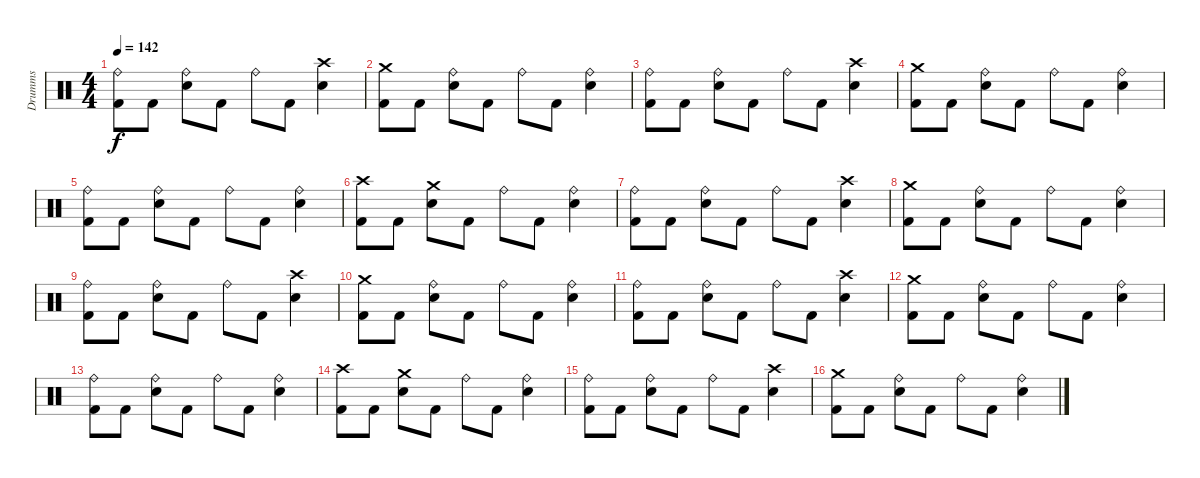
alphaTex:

\track ("Drumms" "Drumms") {instrument percussion}
\staff {score}
\articulation defaults
\ts (4 4)
\tempo 142
\clef neutral
\ks c
("Kick (hit) 2" "Ride (bell)").8{dy f} "Kick (hit) 2".8 ("Electric Snare (hit)" "Ride (bell)").8 "Kick (hit) 2".8 "Ride (bell)".8 "Kick (hit) 2".8 ("Electric Snare (hit)" "Crash high (hit)").4 |
("Kick (hit) 2" "Crash medium (hit)").8 "Kick (hit) 2".8 ("Electric Snare (hit)" "Ride (bell)").8 "Kick (hit) 2".8 "Ride (bell)".8 "Kick (hit) 2".8 ("Electric Snare (hit)" "Ride (bell)").4 |
("Kick (hit) 2" "Ride (bell)").8 "Kick (hit) 2".8 ("Electric Snare (hit)" "Ride (bell)").8 "Kick (hit) 2".8 "Ride (bell)".8 "Kick (hit) 2".8 ("Electric Snare (hit)" "Crash high (hit)").4 |
("Kick (hit) 2" "Crash medium (hit)").8 "Kick (hit) 2".8 ("Electric Snare (hit)" "Ride (bell)").8 "Kick (hit) 2".8 "Ride (bell)".8 "Kick (hit) 2".8 ("Electric Snare (hit)" "Ride (bell)").4 |
("Kick (hit) 2" "Ride (bell)").8 "Kick (hit) 2".8 ("Electric Snare (hit)" "Ride (bell)").8 "Kick (hit) 2".8 "Ride (bell)".8 "Kick (hit) 2".8 ("Electric Snare (hit)" "Ride (bell)").4 |
("Kick (hit) 2" "Crash high (hit)").8 "Kick (hit) 2".8 ("Electric Snare (hit)" "Crash medium (hit)").8 "Kick (hit) 2".8 "Ride (bell)".8 "Kick (hit) 2".8 ("Electric Snare (hit)" "Ride (bell)").4 |
("Ride (bell)" "Kick (hit) 2").8 "Kick (hit) 2".8 ("Ride (bell)" "Electric Snare (hit)").8 "Kick (hit) 2".8 "Ride (bell)".8 "Kick (hit) 2".8 ("Crash high (hit)" "Electric Snare (hit)").4 |
("Kick (hit) 2" "Crash medium (hit)").8 "Kick (hit) 2".8 ("Electric Snare (hit)" "Ride (bell)").8 "Kick (hit) 2".8 "Ride (bell)".8 "Kick (hit) 2".8 ("Electric Snare (hit)" "Ride (bell)").4 |
("Kick (hit) 2" "Ride (bell)").8 "Kick (hit) 2".8 ("Electric Snare (hit)" "Ride (bell)").8 "Kick (hit) 2".8 "Ride (bell)".8 "Kick (hit) 2".8 ("Electric Snare (hit)" "Crash high (hit)").4 |
("Kick (hit) 2" "Crash medium (hit)").8 "Kick (hit) 2".8 ("Electric Snare (hit)" "Ride (bell)").8 "Kick (hit) 2".8 "Ride (bell)".8 "Kick (hit) 2".8 ("Electric Snare (hit)" "Ride (bell)").4 |
("Kick (hit) 2" "Ride (bell)").8 "Kick (hit) 2".8 ("Electric Snare (hit)" "Ride (bell)").8 "Kick (hit) 2".8 "Ride (bell)".8 "Kick (hit) 2".8 ("Electric Snare (hit)" "Crash high (hit)").4 |
("Kick (hit) 2" "Crash medium (hit)").8 "Kick (hit) 2".8 ("Electric Snare (hit)" "Ride (bell)").8 "Kick (hit) 2".8 "Ride (bell)".8 "Kick (hit) 2".8 ("Electric Snare (hit)" "Ride (bell)").4 |
("Kick (hit) 2" "Ride (bell)").8 "Kick (hit) 2".8 ("Electric Snare (hit)" "Ride (bell)").8 "Kick (hit) 2".8 "Ride (bell)".8 "Kick (hit) 2".8 ("Electric Snare (hit)" "Ride (bell)").4 |
("Kick (hit) 2" "Crash high (hit)").8 "Kick (hit) 2".8 ("Electric Snare (hit)" "Crash medium (hit)").8 "Kick (hit) 2".8 "Ride (bell)".8 "Kick (hit) 2".8 ("Electric Snare (hit)" "Ride (bell)").4 |
("Ride (bell)" "Kick (hit) 2").8 "Kick (hit) 2".8 ("Ride (bell)" "Electric Snare (hit)").8 "Kick (hit) 2".8 "Ride (bell)".8 "Kick (hit) 2".8 ("Crash high (hit)" "Electric Snare (hit)").4 |
("Kick (hit) 2" "Crash medium (hit)").8 "Kick (hit) 2".8 ("Electric Snare (hit)" "Ride (bell)").8 "Kick (hit) 2".8 "Ride (bell)".8 "Kick (hit) 2".8 ("Electric Snare (hit)" "Ride (bell)").4
